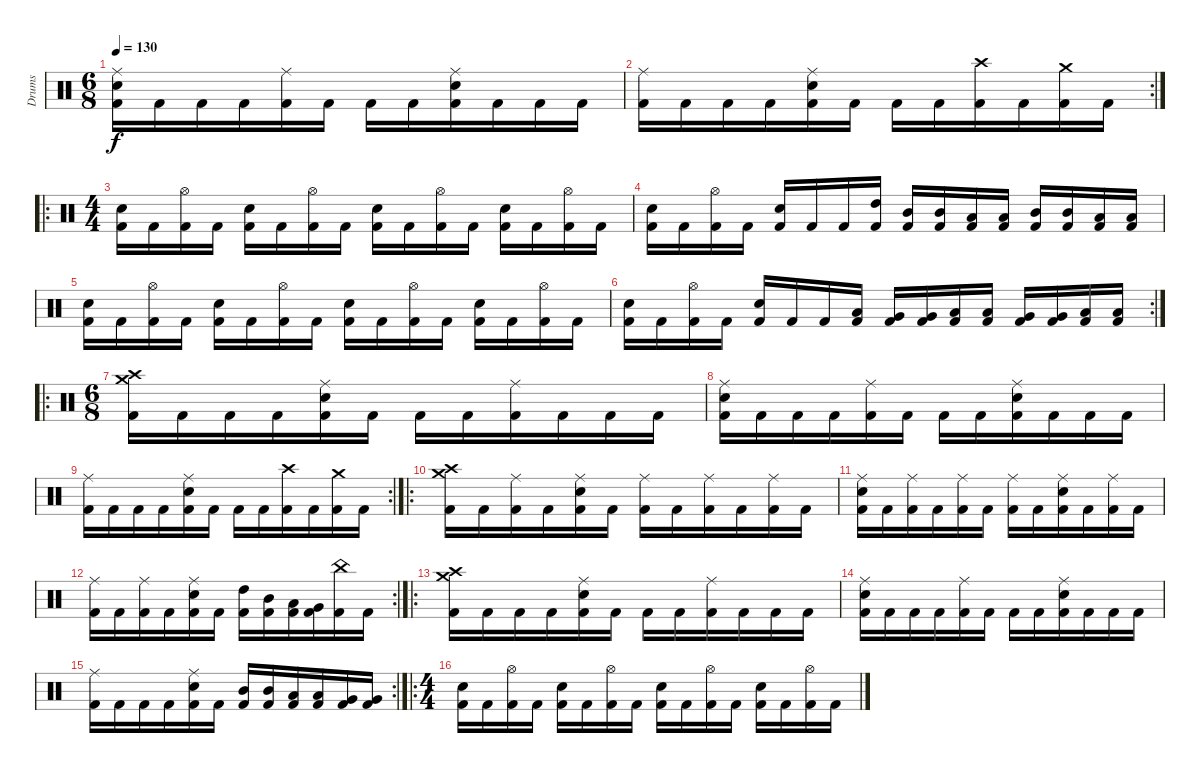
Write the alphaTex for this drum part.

\track ("Drums" "Drums") {instrument percussion}
\staff {score}
\articulation defaults
\ts (6 8)
\tempo 130
\clef neutral
\ks c
("Ride (middle)" "Snare (hit) 2" "Kick (hit) 2").16{dy f} "Kick (hit) 2".16 "Kick (hit) 2".16 "Kick (hit) 2".16 ("Ride (middle)" "Kick (hit) 2").16 "Kick (hit) 2".16 "Kick (hit) 2".16 "Kick (hit) 2".16 ("Ride (middle)" "Snare (hit) 2" "Kick (hit) 2").16 "Kick (hit) 2".16 "Kick (hit) 2".16 "Kick (hit) 2".16 |
\rc 2
("Ride (middle)" "Kick (hit) 2").16 "Kick (hit) 2".16 "Kick (hit) 2".16 "Kick (hit) 2".16 ("Ride (middle)" "Snare (hit) 2" "Kick (hit) 2").16 "Kick (hit) 2".16 "Kick (hit) 2".16 "Kick (hit) 2".16 ("Crash high (hit)" "Kick (hit) 2").16 "Kick (hit) 2".16 ("Crash medium (hit)" "Kick (hit) 2").16 "Kick (hit) 2".16 |
\ro
\ts (4 4)
("Snare (hit) 2" "Kick (hit) 2").16 "Kick (hit) 2".16 ("Hi-Hat (open)" "Kick (hit) 2").16 "Kick (hit) 2".16 ("Snare (hit) 2" "Kick (hit) 2").16 "Kick (hit) 2".16 ("Hi-Hat (open)" "Kick (hit) 2").16 "Kick (hit) 2".16 ("Snare (hit) 2" "Kick (hit) 2").16 "Kick (hit) 2".16 ("Hi-Hat (open)" "Kick (hit) 2").16 "Kick (hit) 2".16 ("Snare (hit) 2" "Kick (hit) 2").16 "Kick (hit) 2".16 ("Hi-Hat (open)" "Kick (hit) 2").16 "Kick (hit) 2".16 |
("Snare (hit) 2" "Kick (hit) 2").16 "Kick (hit) 2".16 ("Hi-Hat (open)" "Kick (hit) 2").16 "Kick (hit) 2".16 ("Snare (hit) 2" "Kick (hit) 2").16 "Kick (hit) 2".16 "Kick (hit) 2".16 ("High Tom (hit)" "Kick (hit) 2").16 ("Mid Tom (hit)" "Kick (hit) 2").16 ("Mid Tom (hit)" "Kick (hit) 2").16 ("Low Tom (hit)" "Kick (hit) 2").16 ("Low Tom (hit)" "Kick (hit) 2").16 ("Mid Tom (hit)" "Kick (hit) 2").16 ("Mid Tom (hit)" "Kick (hit) 2").16 ("Low Tom (hit)" "Kick (hit) 2").16 ("Low Tom (hit)" "Kick (hit) 2").16 |
("Snare (hit) 2" "Kick (hit) 2").16 "Kick (hit) 2".16 ("Hi-Hat (open)" "Kick (hit) 2").16 "Kick (hit) 2".16 ("Snare (hit) 2" "Kick (hit) 2").16 "Kick (hit) 2".16 ("Hi-Hat (open)" "Kick (hit) 2").16 "Kick (hit) 2".16 ("Snare (hit) 2" "Kick (hit) 2").16 "Kick (hit) 2".16 ("Hi-Hat (open)" "Kick (hit) 2").16 "Kick (hit) 2".16 ("Snare (hit) 2" "Kick (hit) 2").16 "Kick (hit) 2".16 ("Hi-Hat (open)" "Kick (hit) 2").16 "Kick (hit) 2".16 |
\rc 2
("Snare (hit) 2" "Kick (hit) 2").16 "Kick (hit) 2".16 ("Hi-Hat (open)" "Kick (hit) 2").16 "Kick (hit) 2".16 ("Snare (hit) 2" "Kick (hit) 2").16 "Kick (hit) 2".16 "Kick (hit) 2".16 ("Low Tom (hit)" "Kick (hit) 2").16 ("Very Low Tom (hit)" "Kick (hit) 2").16 ("Very Low Tom (hit)" "Kick (hit) 2").16 ("Low Floor Tom (hit)" "Kick (hit) 2").16 ("Low Floor Tom (hit)" "Kick (hit) 2").16 ("Very Low Tom (hit)" "Kick (hit) 2").16 ("Very Low Tom (hit)" "Kick (hit) 2").16 ("Low Floor Tom (hit)" "Kick (hit) 2").16 ("Low Floor Tom (hit)" "Kick (hit) 2").16 |
\ro
\ts (6 8)
("Crash medium (hit)" "Crash high (hit)" "Kick (hit) 2").16 "Kick (hit) 2".16 "Kick (hit) 2".16 "Kick (hit) 2".16 ("Ride (middle)" "Snare (hit) 2" "Kick (hit) 2").16 "Kick (hit) 2".16 "Kick (hit) 2".16 "Kick (hit) 2".16 ("Ride (middle)" "Kick (hit) 2").16 "Kick (hit) 2".16 "Kick (hit) 2".16 "Kick (hit) 2".16 |
("Ride (middle)" "Snare (hit) 2" "Kick (hit) 2").16 "Kick (hit) 2".16 "Kick (hit) 2".16 "Kick (hit) 2".16 ("Ride (middle)" "Kick (hit) 2").16 "Kick (hit) 2".16 "Kick (hit) 2".16 "Kick (hit) 2".16 ("Ride (middle)" "Snare (hit) 2" "Kick (hit) 2").16 "Kick (hit) 2".16 "Kick (hit) 2".16 "Kick (hit) 2".16 |
\rc 2
("Ride (middle)" "Kick (hit) 2").16 "Kick (hit) 2".16 "Kick (hit) 2".16 "Kick (hit) 2".16 ("Ride (middle)" "Snare (hit) 2" "Kick (hit) 2").16 "Kick (hit) 2".16 "Kick (hit) 2".16 "Kick (hit) 2".16 ("Crash high (hit)" "Kick (hit) 2").16 "Kick (hit) 2".16 ("Crash medium (hit)" "Kick (hit) 2").16 "Kick (hit) 2".16 |
\ro
("Crash medium (hit)" "Crash high (hit)" "Kick (hit) 2").16 "Kick (hit) 2".16 ("Ride (middle)" "Kick (hit) 2").16 "Kick (hit) 2".16 ("Ride (middle)" "Snare (hit) 2" "Kick (hit) 2").16 "Kick (hit) 2".16 ("Ride (middle)" "Kick (hit) 2").16 "Kick (hit) 2".16 ("Ride (middle)" "Kick (hit) 2").16 "Kick (hit) 2".16 ("Ride (middle)" "Kick (hit) 2").16 "Kick (hit) 2".16 |
("Ride (middle)" "Snare (hit) 2" "Kick (hit) 2").16 "Kick (hit) 2".16 ("Ride (middle)" "Kick (hit) 2").16 "Kick (hit) 2".16 ("Ride (middle)" "Kick (hit) 2").16 "Kick (hit) 2".16 ("Ride (middle)" "Kick (hit) 2").16 "Kick (hit) 2".16 ("Ride (middle)" "Snare (hit) 2" "Kick (hit) 2").16 "Kick (hit) 2".16 ("Ride (middle)" "Kick (hit) 2").16 "Kick (hit) 2".16 |
\rc 2
("Ride (middle)" "Kick (hit) 2").16 "Kick (hit) 2".16 ("Ride (middle)" "Kick (hit) 2").16 "Kick (hit) 2".16 ("Ride (middle)" "Snare (hit) 2" "Kick (hit) 2").16 "Kick (hit) 2".16 ("High Tom (hit)" "Kick (hit) 2").16 ("Mid Tom (hit)" "Kick (hit) 2").16 ("Low Tom (hit)" "Kick (hit) 2").16 ("Very Low Tom (hit)" "Kick (hit) 2").16 ("China (hit)" "Kick (hit) 2").16 "Kick (hit) 2".16 |
\ro
("Crash medium (hit)" "Crash high (hit)" "Kick (hit) 2").16 "Kick (hit) 2".16 "Kick (hit) 2".16 "Kick (hit) 2".16 ("Ride (middle)" "Snare (hit) 2" "Kick (hit) 2").16 "Kick (hit) 2".16 "Kick (hit) 2".16 "Kick (hit) 2".16 ("Ride (middle)" "Kick (hit) 2").16 "Kick (hit) 2".16 "Kick (hit) 2".16 "Kick (hit) 2".16 |
("Ride (middle)" "Snare (hit) 2" "Kick (hit) 2").16 "Kick (hit) 2".16 "Kick (hit) 2".16 "Kick (hit) 2".16 ("Ride (middle)" "Kick (hit) 2").16 "Kick (hit) 2".16 "Kick (hit) 2".16 "Kick (hit) 2".16 ("Ride (middle)" "Snare (hit) 2" "Kick (hit) 2").16 "Kick (hit) 2".16 "Kick (hit) 2".16 "Kick (hit) 2".16 |
\rc 2
("Ride (middle)" "Kick (hit) 2").16 "Kick (hit) 2".16 "Kick (hit) 2".16 "Kick (hit) 2".16 ("Ride (middle)" "Snare (hit) 2" "Kick (hit) 2").16 "Kick (hit) 2".16 ("Mid Tom (hit)" "Kick (hit) 2").16 ("Mid Tom (hit)" "Kick (hit) 2").16 ("Low Tom (hit)" "Kick (hit) 2").16 ("Low Tom (hit)" "Kick (hit) 2").16 ("Very Low Tom (hit)" "Kick (hit) 2").16 ("Very Low Tom (hit)" "Kick (hit) 2").16 |
\ro
\ts (4 4)
("Snare (hit) 2" "Kick (hit) 2").16 "Kick (hit) 2".16 ("Hi-Hat (open)" "Kick (hit) 2").16 "Kick (hit) 2".16 ("Snare (hit) 2" "Kick (hit) 2").16 "Kick (hit) 2".16 ("Hi-Hat (open)" "Kick (hit) 2").16 "Kick (hit) 2".16 ("Snare (hit) 2" "Kick (hit) 2").16 "Kick (hit) 2".16 ("Hi-Hat (open)" "Kick (hit) 2").16 "Kick (hit) 2".16 ("Snare (hit) 2" "Kick (hit) 2").16 "Kick (hit) 2".16 ("Hi-Hat (open)" "Kick (hit) 2").16 "Kick (hit) 2".16
